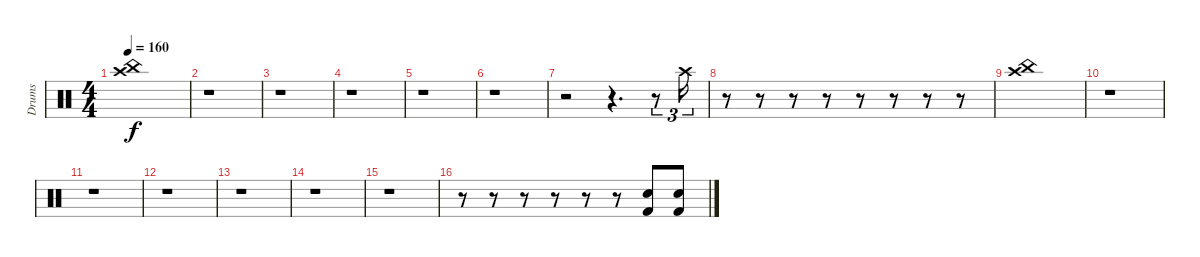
\track ("Drums" "Drums") {instrument percussion}
\staff {score}
\articulation defaults
\ts (4 4)
\tempo 160
\clef neutral
\ks c
("Crash high (hit)" "China (hit)").1{dy f} |
r.1 |
r.1 |
r.1 |
r.1 |
r.1 |
r.2 r.4{d} r.8{tu (3 2)} "Crash high (hit)".16{tu (3 2)} |
r.8 r.8 r.8 r.8 r.8 r.8 r.8 r.8 |
("Crash high (hit)" "China (hit)").1 |
r.1 |
r.1 |
r.1 |
r.1 |
r.1 |
r.1 |
r.8 r.8 r.8 r.8 r.8 r.8 ("Electric Snare (hit)" "Kick (hit) 2").8 ("Electric Snare (hit)" "Kick (hit) 2").8
